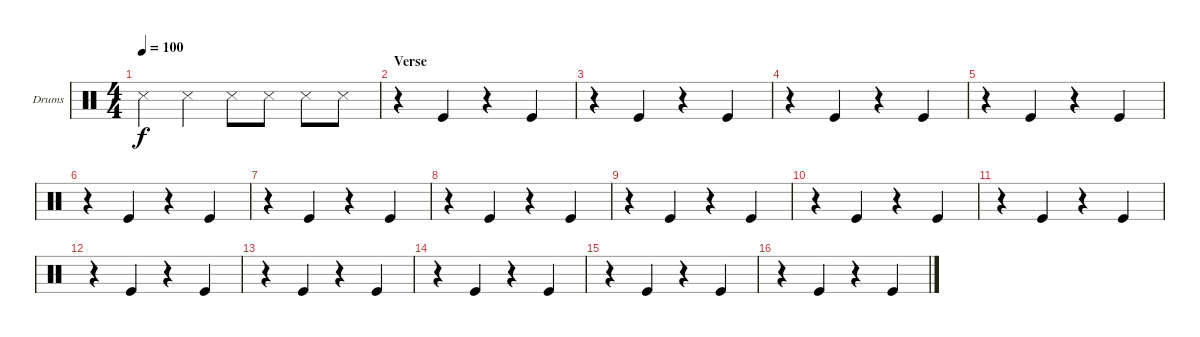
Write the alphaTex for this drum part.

\bracketExtendMode groupsimilarinstruments
\firstSystemTrackNameOrientation horizontal
\otherSystemsTrackNameOrientation horizontal
\track ("Drumkit" "Drums") {instrument percussion}
\staff {score}
\articulation defaults
\ts (4 4)
\tempo 100
\clef neutral
\ks c "Snare (side stick) 3".4{dy f} "Snare (side stick) 3".4 "Snare (side stick) 3".8 "Snare (side stick) 3".8 "Snare (side stick) 3".8 "Snare (side stick) 3".8
|
\section ("" "Verse")
r.4 "Kick (hit)".4 r.4 "Kick (hit)".4 |
r.4 "Kick (hit)".4 r.4 "Kick (hit)".4 |
r.4 "Kick (hit)".4 r.4 "Kick (hit)".4 |
r.4 "Kick (hit)".4 r.4 "Kick (hit)".4 |
r.4 "Kick (hit)".4 r.4 "Kick (hit)".4 |
r.4 "Kick (hit)".4 r.4 "Kick (hit)".4 |
r.4 "Kick (hit)".4 r.4 "Kick (hit)".4 |
r.4 "Kick (hit)".4 r.4 "Kick (hit)".4 |
r.4 "Kick (hit)".4 r.4 "Kick (hit)".4 |
r.4 "Kick (hit)".4 r.4 "Kick (hit)".4 |
r.4 "Kick (hit)".4 r.4 "Kick (hit)".4 |
r.4 "Kick (hit)".4 r.4 "Kick (hit)".4 |
r.4 "Kick (hit)".4 r.4 "Kick (hit)".4 |
r.4 "Kick (hit)".4 r.4 "Kick (hit)".4 |
r.4 "Kick (hit)".4 r.4 "Kick (hit)".4
